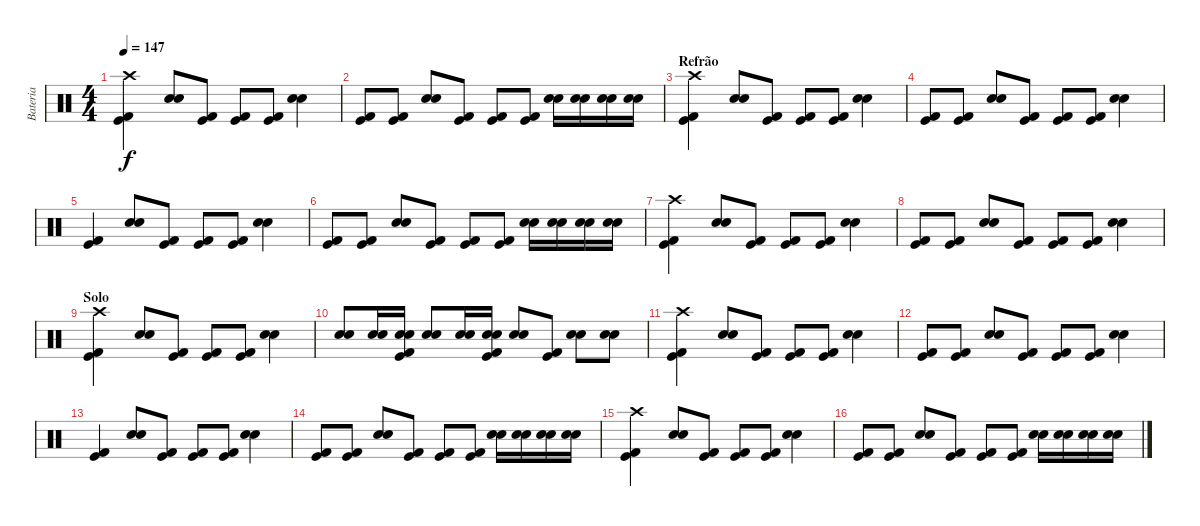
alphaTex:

\track ("Bateria" "Bateria") {instrument percussion}
\staff {score}
\articulation defaults
\ts (4 4)
\tempo 147
\clef neutral
\ks c
("Crash high (hit)" "Kick (hit)" "Kick (hit) 2").4{dy f} ("Snare (hit) 2" "Electric Snare (hit)").8 ("Kick (hit)" "Kick (hit) 2").8 ("Kick (hit)" "Kick (hit) 2").8 ("Kick (hit)" "Kick (hit) 2").8 ("Snare (hit) 2" "Electric Snare (hit)").4 |
("Kick (hit)" "Kick (hit) 2").8 ("Kick (hit)" "Kick (hit) 2").8 ("Snare (hit) 2" "Electric Snare (hit)").8 ("Kick (hit)" "Kick (hit) 2").8 ("Kick (hit)" "Kick (hit) 2").8 ("Kick (hit)" "Kick (hit) 2").8 ("Snare (hit) 2" "Electric Snare (hit)").16 ("Snare (hit) 2" "Electric Snare (hit)").16 ("Snare (hit) 2" "Electric Snare (hit)").16 ("Snare (hit) 2" "Electric Snare (hit)").16 |
\section ("" "Refrão")
("Crash high (hit)" "Kick (hit)" "Kick (hit) 2").4 ("Snare (hit) 2" "Electric Snare (hit)").8 ("Kick (hit)" "Kick (hit) 2").8 ("Kick (hit)" "Kick (hit) 2").8 ("Kick (hit)" "Kick (hit) 2").8 ("Snare (hit) 2" "Electric Snare (hit)").4 |
("Kick (hit)" "Kick (hit) 2").8 ("Kick (hit)" "Kick (hit) 2").8 ("Snare (hit) 2" "Electric Snare (hit)").8 ("Kick (hit)" "Kick (hit) 2").8 ("Kick (hit)" "Kick (hit) 2").8 ("Kick (hit)" "Kick (hit) 2").8 ("Snare (hit) 2" "Electric Snare (hit)").4 |
("Kick (hit)" "Kick (hit) 2").4 ("Snare (hit) 2" "Electric Snare (hit)").8 ("Kick (hit)" "Kick (hit) 2").8 ("Kick (hit)" "Kick (hit) 2").8 ("Kick (hit)" "Kick (hit) 2").8 ("Snare (hit) 2" "Electric Snare (hit)").4 |
("Kick (hit)" "Kick (hit) 2").8 ("Kick (hit)" "Kick (hit) 2").8 ("Snare (hit) 2" "Electric Snare (hit)").8 ("Kick (hit)" "Kick (hit) 2").8 ("Kick (hit)" "Kick (hit) 2").8 ("Kick (hit)" "Kick (hit) 2").8 ("Snare (hit) 2" "Electric Snare (hit)").16 ("Snare (hit) 2" "Electric Snare (hit)").16 ("Snare (hit) 2" "Electric Snare (hit)").16 ("Snare (hit) 2" "Electric Snare (hit)").16 |
("Crash high (hit)" "Kick (hit)" "Kick (hit) 2").4 ("Snare (hit) 2" "Electric Snare (hit)").8 ("Kick (hit)" "Kick (hit) 2").8 ("Kick (hit)" "Kick (hit) 2").8 ("Kick (hit)" "Kick (hit) 2").8 ("Snare (hit) 2" "Electric Snare (hit)").4 |
("Kick (hit)" "Kick (hit) 2").8 ("Kick (hit)" "Kick (hit) 2").8 ("Snare (hit) 2" "Electric Snare (hit)").8 ("Kick (hit)" "Kick (hit) 2").8 ("Kick (hit)" "Kick (hit) 2").8 ("Kick (hit)" "Kick (hit) 2").8 ("Snare (hit) 2" "Electric Snare (hit)").4 |
\section ("" "Solo")
("Crash high (hit)" "Kick (hit)" "Kick (hit) 2").4 ("Snare (hit) 2" "Electric Snare (hit)").8 ("Kick (hit)" "Kick (hit) 2").8 ("Kick (hit)" "Kick (hit) 2").8 ("Kick (hit)" "Kick (hit) 2").8 ("Snare (hit) 2" "Electric Snare (hit)").4 |
("Snare (hit) 2" "Electric Snare (hit)").8 ("Snare (hit) 2" "Electric Snare (hit)").16 ("Snare (hit) 2" "Electric Snare (hit)" "Kick (hit)" "Kick (hit) 2").16 ("Snare (hit) 2" "Electric Snare (hit)").8 ("Snare (hit) 2" "Electric Snare (hit)").16 ("Snare (hit) 2" "Electric Snare (hit)" "Kick (hit)" "Kick (hit) 2").16 ("Snare (hit) 2" "Electric Snare (hit)").8 ("Kick (hit)" "Kick (hit) 2").8 ("Snare (hit) 2" "Electric Snare (hit)").8 ("Snare (hit) 2" "Electric Snare (hit)").8 |
("Crash high (hit)" "Kick (hit)" "Kick (hit) 2").4 ("Snare (hit) 2" "Electric Snare (hit)").8 ("Kick (hit)" "Kick (hit) 2").8 ("Kick (hit)" "Kick (hit) 2").8 ("Kick (hit)" "Kick (hit) 2").8 ("Snare (hit) 2" "Electric Snare (hit)").4 |
("Kick (hit)" "Kick (hit) 2").8 ("Kick (hit)" "Kick (hit) 2").8 ("Snare (hit) 2" "Electric Snare (hit)").8 ("Kick (hit)" "Kick (hit) 2").8 ("Kick (hit)" "Kick (hit) 2").8 ("Kick (hit)" "Kick (hit) 2").8 ("Snare (hit) 2" "Electric Snare (hit)").4 |
("Kick (hit)" "Kick (hit) 2").4 ("Snare (hit) 2" "Electric Snare (hit)").8 ("Kick (hit)" "Kick (hit) 2").8 ("Kick (hit)" "Kick (hit) 2").8 ("Kick (hit)" "Kick (hit) 2").8 ("Snare (hit) 2" "Electric Snare (hit)").4 |
("Kick (hit)" "Kick (hit) 2").8 ("Kick (hit)" "Kick (hit) 2").8 ("Snare (hit) 2" "Electric Snare (hit)").8 ("Kick (hit)" "Kick (hit) 2").8 ("Kick (hit)" "Kick (hit) 2").8 ("Kick (hit)" "Kick (hit) 2").8 ("Snare (hit) 2" "Electric Snare (hit)").16 ("Snare (hit) 2" "Electric Snare (hit)").16 ("Snare (hit) 2" "Electric Snare (hit)").16 ("Snare (hit) 2" "Electric Snare (hit)").16 |
("Crash high (hit)" "Kick (hit)" "Kick (hit) 2").4 ("Snare (hit) 2" "Electric Snare (hit)").8 ("Kick (hit)" "Kick (hit) 2").8 ("Kick (hit)" "Kick (hit) 2").8 ("Kick (hit)" "Kick (hit) 2").8 ("Snare (hit) 2" "Electric Snare (hit)").4 |
("Kick (hit)" "Kick (hit) 2").8 ("Kick (hit)" "Kick (hit) 2").8 ("Snare (hit) 2" "Electric Snare (hit)").8 ("Kick (hit)" "Kick (hit) 2").8 ("Kick (hit)" "Kick (hit) 2").8 ("Kick (hit)" "Kick (hit) 2").8 ("Snare (hit) 2" "Electric Snare (hit)").16 ("Snare (hit) 2" "Electric Snare (hit)").16 ("Snare (hit) 2" "Electric Snare (hit)").16 ("Snare (hit) 2" "Electric Snare (hit)").16
